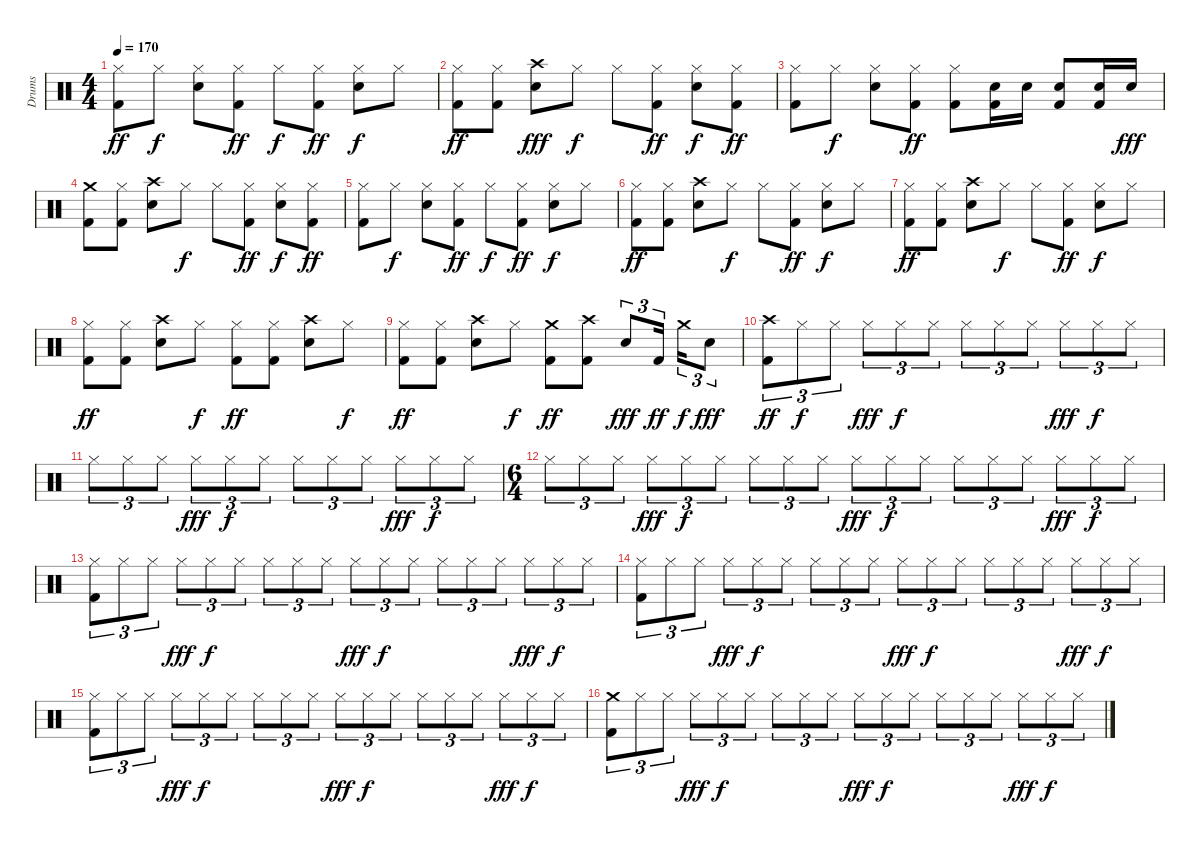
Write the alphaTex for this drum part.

\track ("Drums" "Drums") {instrument percussion}
\staff {score}
\articulation defaults
\ts (4 4)
\tempo 170
\clef neutral
\ks c
("Kick (hit) 2" "Hi-Hat (closed)").8{dy ff} "Hi-Hat (closed)".8{dy f} ("Hi-Hat (closed)" "Snare (hit) 2").8 ("Kick (hit) 2" "Hi-Hat (closed)").8{dy ff} "Hi-Hat (closed)".8{dy f} ("Kick (hit) 2" "Hi-Hat (closed)").8{dy ff} ("Hi-Hat (closed)" "Snare (hit) 2").8{dy f} "Hi-Hat (closed)".8 |
("Kick (hit) 2" "Hi-Hat (closed)").8{dy ff} ("Kick (hit) 2" "Hi-Hat (closed)").8 ("Crash high (hit)" "Snare (hit) 2").8{dy fff} "Hi-Hat (closed)".8{dy f} "Hi-Hat (closed)".8 ("Kick (hit) 2" "Hi-Hat (closed)").8{dy ff} ("Hi-Hat (closed)" "Snare (hit) 2").8{dy f} ("Kick (hit) 2" "Hi-Hat (closed)").8{dy ff} |
("Kick (hit) 2" "Hi-Hat (closed)").8 "Hi-Hat (closed)".8{dy f} ("Snare (hit) 2" "Hi-Hat (closed)").8 ("Kick (hit) 2" "Hi-Hat (closed)").8{dy ff} ("Kick (hit) 2" "Hi-Hat (closed)").8 ("Snare (hit) 2" "Kick (hit) 2").16 "Snare (hit) 2".16 ("Snare (hit) 2" "Kick (hit) 2").8 ("Snare (hit) 2" "Kick (hit) 2").16 "Snare (hit) 2".16{dy fff} |
("Crash medium (hit)" "Kick (hit) 2").8 ("Hi-Hat (closed)" "Kick (hit) 2").8 ("Snare (hit) 2" "Crash high (hit)").8 "Hi-Hat (closed)".8{dy f} "Hi-Hat (closed)".8 ("Hi-Hat (closed)" "Kick (hit) 2").8{dy ff} ("Hi-Hat (closed)" "Snare (hit) 2").8{dy f} ("Hi-Hat (closed)" "Kick (hit) 2").8{dy ff} |
("Kick (hit) 2" "Hi-Hat (closed)").8 "Hi-Hat (closed)".8{dy f} ("Hi-Hat (closed)" "Snare (hit) 2").8 ("Kick (hit) 2" "Hi-Hat (closed)").8{dy ff} "Hi-Hat (closed)".8{dy f} ("Kick (hit) 2" "Hi-Hat (closed)").8{dy ff} ("Hi-Hat (closed)" "Snare (hit) 2").8{dy f} "Hi-Hat (closed)".8 |
("Kick (hit) 2" "Hi-Hat (closed)").8{dy ff} ("Kick (hit) 2" "Hi-Hat (closed)").8 ("Crash high (hit)" "Snare (hit) 2").8 "Hi-Hat (closed)".8{dy f} "Hi-Hat (closed)".8 ("Kick (hit) 2" "Hi-Hat (closed)").8{dy ff} ("Hi-Hat (closed)" "Snare (hit) 2").8{dy f} "Hi-Hat (closed)".8 |
("Kick (hit) 2" "Hi-Hat (closed)").8{dy ff} ("Kick (hit) 2" "Hi-Hat (closed)").8 ("Crash high (hit)" "Snare (hit) 2").8 "Hi-Hat (closed)".8{dy f} "Hi-Hat (closed)".8 ("Kick (hit) 2" "Hi-Hat (closed)").8{dy ff} ("Hi-Hat (closed)" "Snare (hit) 2").8{dy f} "Hi-Hat (closed)".8 |
("Kick (hit) 2" "Hi-Hat (closed)").8{dy ff} ("Kick (hit) 2" "Hi-Hat (closed)").8 ("Snare (hit) 2" "Crash high (hit)").8 "Hi-Hat (closed)".8{dy f} ("Kick (hit) 2" "Hi-Hat (closed)").8{dy ff} ("Kick (hit) 2" "Hi-Hat (closed)").8 ("Snare (hit) 2" "Crash high (hit)").8 "Hi-Hat (closed)".8{dy f} |
("Hi-Hat (closed)" "Kick (hit) 2").8{dy ff} ("Hi-Hat (closed)" "Kick (hit) 2").8 ("Crash high (hit)" "Snare (hit) 2").8 "Hi-Hat (closed)".8{dy f} ("Crash medium (hit)" "Kick (hit) 2").8{dy ff} ("Kick (hit) 2" "Crash high (hit)").8 "Snare (hit) 2".8{tu (3 2) dy fff} "Kick (hit) 2".16{tu (3 2) dy ff} "Crash medium (hit)".16{tu (3 2) dy f} "Snare (hit) 2".8{tu (3 2) dy fff} |
("Crash high (hit)" "Kick (hit) 2").8{tu (3 2) dy ff} "Hi-Hat (closed)".8{tu (3 2) dy f} "Hi-Hat (closed)".8{tu (3 2)} "Hi-Hat (closed)".8{tu (3 2) dy fff} "Hi-Hat (closed)".8{tu (3 2) dy f} "Hi-Hat (closed)".8{tu (3 2)} "Hi-Hat (closed)".8{tu (3 2)} "Hi-Hat (closed)".8{tu (3 2)} "Hi-Hat (closed)".8{tu (3 2)} "Hi-Hat (closed)".8{tu (3 2) dy fff} "Hi-Hat (closed)".8{tu (3 2) dy f} "Hi-Hat (closed)".8{tu (3 2)} |
"Hi-Hat (closed)".8{tu (3 2)} "Hi-Hat (closed)".8{tu (3 2)} "Hi-Hat (closed)".8{tu (3 2)} "Hi-Hat (closed)".8{tu (3 2) dy fff} "Hi-Hat (closed)".8{tu (3 2) dy f} "Hi-Hat (closed)".8{tu (3 2)} "Hi-Hat (closed)".8{tu (3 2)} "Hi-Hat (closed)".8{tu (3 2)} "Hi-Hat (closed)".8{tu (3 2)} "Hi-Hat (closed)".8{tu (3 2) dy fff} "Hi-Hat (closed)".8{tu (3 2) dy f} "Hi-Hat (closed)".8{tu (3 2)} |
\ts (6 4)
"Hi-Hat (closed)".8{tu (3 2)} "Hi-Hat (closed)".8{tu (3 2)} "Hi-Hat (closed)".8{tu (3 2)} "Hi-Hat (closed)".8{tu (3 2) dy fff} "Hi-Hat (closed)".8{tu (3 2) dy f} "Hi-Hat (closed)".8{tu (3 2)} "Hi-Hat (closed)".8{tu (3 2)} "Hi-Hat (closed)".8{tu (3 2)} "Hi-Hat (closed)".8{tu (3 2)} "Hi-Hat (closed)".8{tu (3 2) dy fff} "Hi-Hat (closed)".8{tu (3 2) dy f} "Hi-Hat (closed)".8{tu (3 2)} "Hi-Hat (closed)".8{tu (3 2)} "Hi-Hat (closed)".8{tu (3 2)} "Hi-Hat (closed)".8{tu (3 2)} "Hi-Hat (closed)".8{tu (3 2) dy fff} "Hi-Hat (closed)".8{tu (3 2) dy f} "Hi-Hat (closed)".8{tu (3 2)} |
("Hi-Hat (closed)" "Kick (hit) 2").8{tu (3 2)} "Hi-Hat (closed)".8{tu (3 2)} "Hi-Hat (closed)".8{tu (3 2)} "Hi-Hat (closed)".8{tu (3 2) dy fff} "Hi-Hat (closed)".8{tu (3 2) dy f} "Hi-Hat (closed)".8{tu (3 2)} "Hi-Hat (closed)".8{tu (3 2)} "Hi-Hat (closed)".8{tu (3 2)} "Hi-Hat (closed)".8{tu (3 2)} "Hi-Hat (closed)".8{tu (3 2) dy fff} "Hi-Hat (closed)".8{tu (3 2) dy f} "Hi-Hat (closed)".8{tu (3 2)} "Hi-Hat (closed)".8{tu (3 2)} "Hi-Hat (closed)".8{tu (3 2)} "Hi-Hat (closed)".8{tu (3 2)} "Hi-Hat (closed)".8{tu (3 2) dy fff} "Hi-Hat (closed)".8{tu (3 2) dy f} "Hi-Hat (closed)".8{tu (3 2)} |
("Hi-Hat (closed)" "Kick (hit) 2").8{tu (3 2)} "Hi-Hat (closed)".8{tu (3 2)} "Hi-Hat (closed)".8{tu (3 2)} "Hi-Hat (closed)".8{tu (3 2) dy fff} "Hi-Hat (closed)".8{tu (3 2) dy f} "Hi-Hat (closed)".8{tu (3 2)} "Hi-Hat (closed)".8{tu (3 2)} "Hi-Hat (closed)".8{tu (3 2)} "Hi-Hat (closed)".8{tu (3 2)} "Hi-Hat (closed)".8{tu (3 2) dy fff} "Hi-Hat (closed)".8{tu (3 2) dy f} "Hi-Hat (closed)".8{tu (3 2)} "Hi-Hat (closed)".8{tu (3 2)} "Hi-Hat (closed)".8{tu (3 2)} "Hi-Hat (closed)".8{tu (3 2)} "Hi-Hat (closed)".8{tu (3 2) dy fff} "Hi-Hat (closed)".8{tu (3 2) dy f} "Hi-Hat (closed)".8{tu (3 2)} |
("Hi-Hat (closed)" "Kick (hit) 2").8{tu (3 2)} "Hi-Hat (closed)".8{tu (3 2)} "Hi-Hat (closed)".8{tu (3 2)} "Hi-Hat (closed)".8{tu (3 2) dy fff} "Hi-Hat (closed)".8{tu (3 2) dy f} "Hi-Hat (closed)".8{tu (3 2)} "Hi-Hat (closed)".8{tu (3 2)} "Hi-Hat (closed)".8{tu (3 2)} "Hi-Hat (closed)".8{tu (3 2)} "Hi-Hat (closed)".8{tu (3 2) dy fff} "Hi-Hat (closed)".8{tu (3 2) dy f} "Hi-Hat (closed)".8{tu (3 2)} "Hi-Hat (closed)".8{tu (3 2)} "Hi-Hat (closed)".8{tu (3 2)} "Hi-Hat (closed)".8{tu (3 2)} "Hi-Hat (closed)".8{tu (3 2) dy fff} "Hi-Hat (closed)".8{tu (3 2) dy f} "Hi-Hat (closed)".8{tu (3 2)} |
("Crash medium (hit)" "Kick (hit) 2").8{tu (3 2)} "Hi-Hat (closed)".8{tu (3 2)} "Hi-Hat (closed)".8{tu (3 2)} "Hi-Hat (closed)".8{tu (3 2) dy fff} "Hi-Hat (closed)".8{tu (3 2) dy f} "Hi-Hat (closed)".8{tu (3 2)} "Hi-Hat (closed)".8{tu (3 2)} "Hi-Hat (closed)".8{tu (3 2)} "Hi-Hat (closed)".8{tu (3 2)} "Hi-Hat (closed)".8{tu (3 2) dy fff} "Hi-Hat (closed)".8{tu (3 2) dy f} "Hi-Hat (closed)".8{tu (3 2)} "Hi-Hat (closed)".8{tu (3 2)} "Hi-Hat (closed)".8{tu (3 2)} "Hi-Hat (closed)".8{tu (3 2)} "Hi-Hat (closed)".8{tu (3 2) dy fff} "Hi-Hat (closed)".8{tu (3 2) dy f} "Hi-Hat (closed)".8{tu (3 2)}
